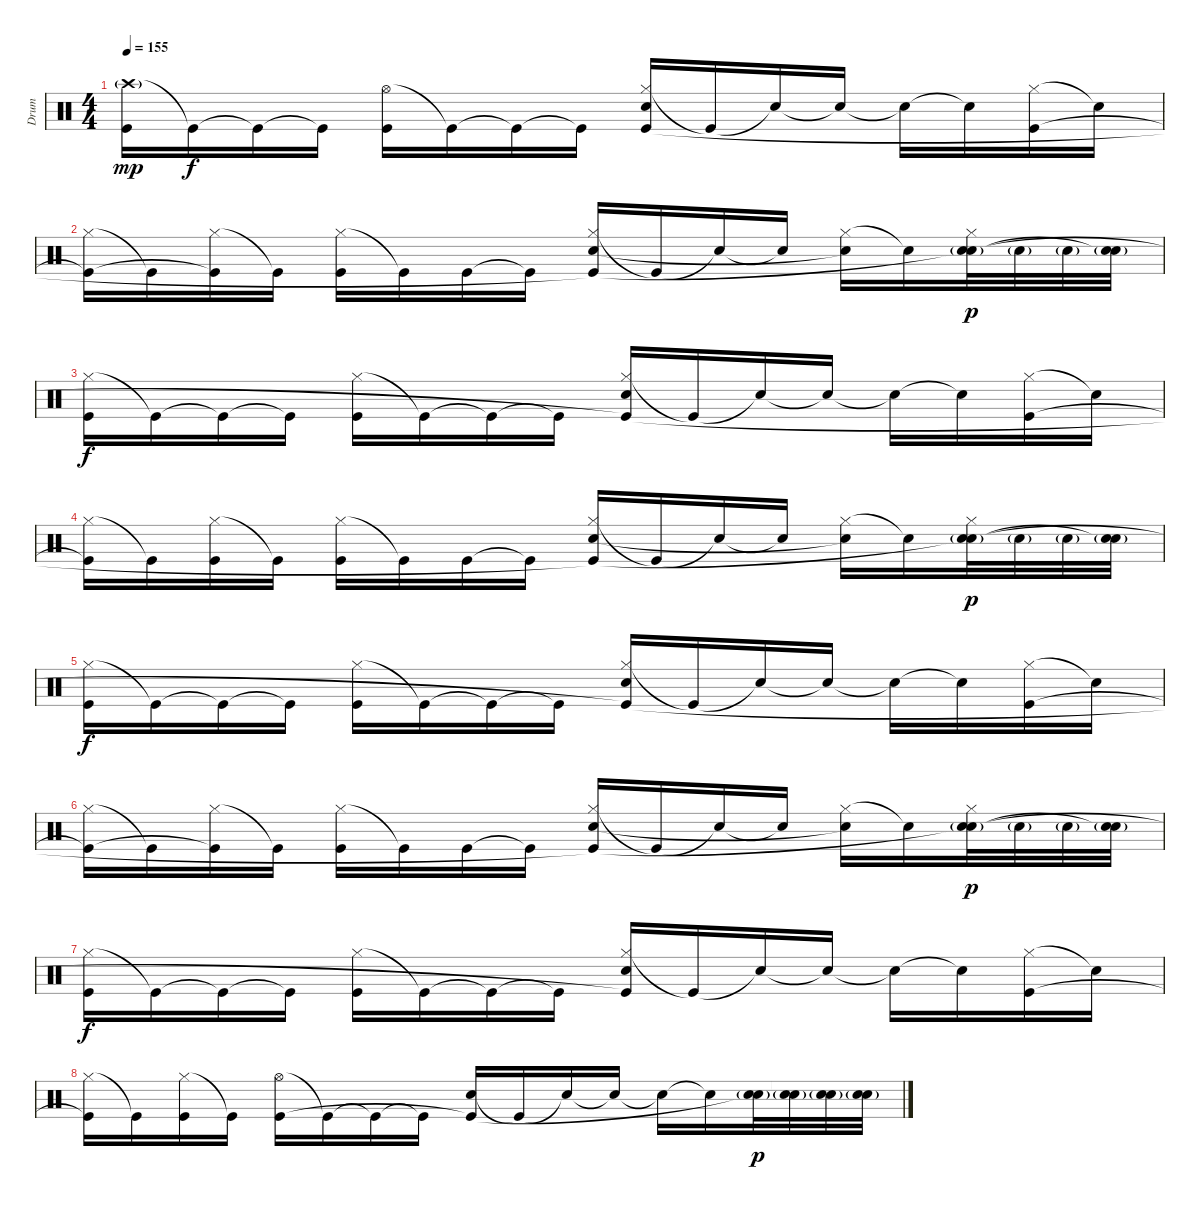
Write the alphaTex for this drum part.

\track ("Drum" "Drum") {instrument percussion}
\staff {score}
\articulation defaults
\ts (4 4)
\tempo 155
\clef neutral
\ks c
("Crash high (hit)"{g} "Kick (hit)").16{dy mp} "Kick (hit)"{t}.16{dy f} "Kick (hit)"{t}.16 "Kick (hit)"{t}.16 ("Hi-Hat (open)" "Kick (hit)").16 "Kick (hit)"{t}.16 "Kick (hit)"{t}.16 "Kick (hit)"{t}.16 ("Hi-Hat (closed)" "Electric Snare (hit)" "Kick (hit)"{t}).16 "Kick (hit)"{t}.16 "Snare (hit)"{t}.16 "Snare (hit)"{t}.16 "Snare (hit)"{t}.16 "Snare (hit)"{t}.16 ("Hi-Hat (closed)" "Kick (hit)").16 "Snare (hit)"{t}.16 |
("Hi-Hat (closed)" "Kick (hit)"{t}).16 "Kick (hit)"{t}.16 ("Hi-Hat (closed)" "Kick (hit)"{t}).16 "Kick (hit)"{t}.16 ("Hi-Hat (closed)" "Kick (hit)").16 "Kick (hit)"{t}.16 "Kick (hit)".16 "Kick (hit)"{t}.16 ("Hi-Hat (closed)" "Electric Snare (hit)" "Kick (hit)"{t}).16 "Kick (hit)"{t}.16 "Snare (hit)"{t}.16 "Snare (hit)"{t}.16 ("Hi-Hat (closed)" "Snare (hit)"{t}).16 "Snare (hit)"{t}.16 ("Hi-Hat (closed)" "Electric Snare (hit)"{g} "Snare (hit)"{t}).32{dy p} "Electric Snare (hit)"{g}.32 "Electric Snare (hit)"{g}.32 ("Electric Snare (hit)"{g} "Snare (hit)"{t}).32 |
("Hi-Hat (closed)" "Kick (hit)").16{dy f} "Kick (hit)"{t}.16 "Kick (hit)"{t}.16 "Kick (hit)"{t}.16 ("Hi-Hat (closed)" "Kick (hit)").16 "Kick (hit)"{t}.16 "Kick (hit)"{t}.16 "Kick (hit)"{t}.16 ("Hi-Hat (closed)" "Electric Snare (hit)" "Kick (hit)"{t}).16 "Kick (hit)"{t}.16 "Snare (hit)"{t}.16 "Snare (hit)"{t}.16 "Snare (hit)"{t}.16 "Snare (hit)"{t}.16 ("Hi-Hat (closed)" "Kick (hit)").16 "Snare (hit)"{t}.16 |
("Hi-Hat (closed)" "Kick (hit)"{t}).16 "Kick (hit)"{t}.16 ("Hi-Hat (closed)" "Kick (hit)").16 "Kick (hit)"{t}.16 ("Hi-Hat (closed)" "Kick (hit)").16 "Kick (hit)"{t}.16 "Kick (hit)".16 "Kick (hit)"{t}.16 ("Hi-Hat (closed)" "Electric Snare (hit)" "Kick (hit)"{t}).16 "Kick (hit)"{t}.16 "Snare (hit)"{t}.16 "Snare (hit)"{t}.16 ("Hi-Hat (closed)" "Snare (hit)"{t}).16 "Snare (hit)"{t}.16 ("Hi-Hat (closed)" "Electric Snare (hit)"{g} "Snare (hit)"{t}).32{dy p} "Electric Snare (hit)"{g}.32 "Electric Snare (hit)"{g}.32 ("Electric Snare (hit)"{g} "Snare (hit)"{t}).32 |
("Hi-Hat (closed)" "Kick (hit)").16{dy f} "Kick (hit)"{t}.16 "Kick (hit)"{t}.16 "Kick (hit)"{t}.16 ("Hi-Hat (closed)" "Kick (hit)").16 "Kick (hit)"{t}.16 "Kick (hit)"{t}.16 "Kick (hit)"{t}.16 ("Hi-Hat (closed)" "Electric Snare (hit)" "Kick (hit)"{t}).16 "Kick (hit)"{t}.16 "Snare (hit)"{t}.16 "Snare (hit)"{t}.16 "Snare (hit)"{t}.16 "Snare (hit)"{t}.16 ("Hi-Hat (closed)" "Kick (hit)").16 "Snare (hit)"{t}.16 |
("Hi-Hat (closed)" "Kick (hit)"{t}).16 "Kick (hit)"{t}.16 ("Hi-Hat (closed)" "Kick (hit)"{t}).16 "Kick (hit)"{t}.16 ("Hi-Hat (closed)" "Kick (hit)").16 "Kick (hit)"{t}.16 "Kick (hit)".16 "Kick (hit)"{t}.16 ("Hi-Hat (closed)" "Electric Snare (hit)" "Kick (hit)"{t}).16 "Kick (hit)"{t}.16 "Snare (hit)"{t}.16 "Snare (hit)"{t}.16 ("Hi-Hat (closed)" "Snare (hit)"{t}).16 "Snare (hit)"{t}.16 ("Hi-Hat (closed)" "Electric Snare (hit)"{g} "Snare (hit)"{t}).32{dy p} "Electric Snare (hit)"{g}.32 "Electric Snare (hit)"{g}.32 ("Electric Snare (hit)"{g} "Snare (hit)"{t}).32 |
("Hi-Hat (closed)" "Kick (hit)").16{dy f} "Kick (hit)"{t}.16 "Kick (hit)"{t}.16 "Kick (hit)"{t}.16 ("Hi-Hat (closed)" "Kick (hit)").16 "Kick (hit)"{t}.16 "Kick (hit)"{t}.16 "Kick (hit)"{t}.16 ("Hi-Hat (closed)" "Electric Snare (hit)" "Kick (hit)"{t}).16 "Kick (hit)"{t}.16 "Snare (hit)"{t}.16 "Snare (hit)"{t}.16 "Snare (hit)"{t}.16 "Snare (hit)"{t}.16 ("Hi-Hat (closed)" "Kick (hit)").16 "Snare (hit)"{t}.16 |
("Hi-Hat (closed)" "Kick (hit)"{t}).16 "Kick (hit)"{t}.16 ("Hi-Hat (closed)" "Kick (hit)").16 "Kick (hit)"{t}.16 ("Hi-Hat (open)" "Kick (hit)").16 "Kick (hit)"{t}.16 "Kick (hit)"{t}.16 "Kick (hit)"{t}.16 ("Electric Snare (hit)" "Kick (hit)"{t}).16 "Kick (hit)"{t}.16 "Snare (hit)"{t}.16 "Snare (hit)"{t}.16 "Snare (hit)"{t}.16 "Snare (hit)"{t}.16 ("Electric Snare (hit)"{g} "Snare (hit)"{t}).32{dy p} ("Electric Snare (hit)"{g} "Snare (hit)"{t}).32 ("Electric Snare (hit)"{g} "Snare (hit)"{t}).32 ("Electric Snare (hit)"{g} "Snare (hit)"{t}).32
